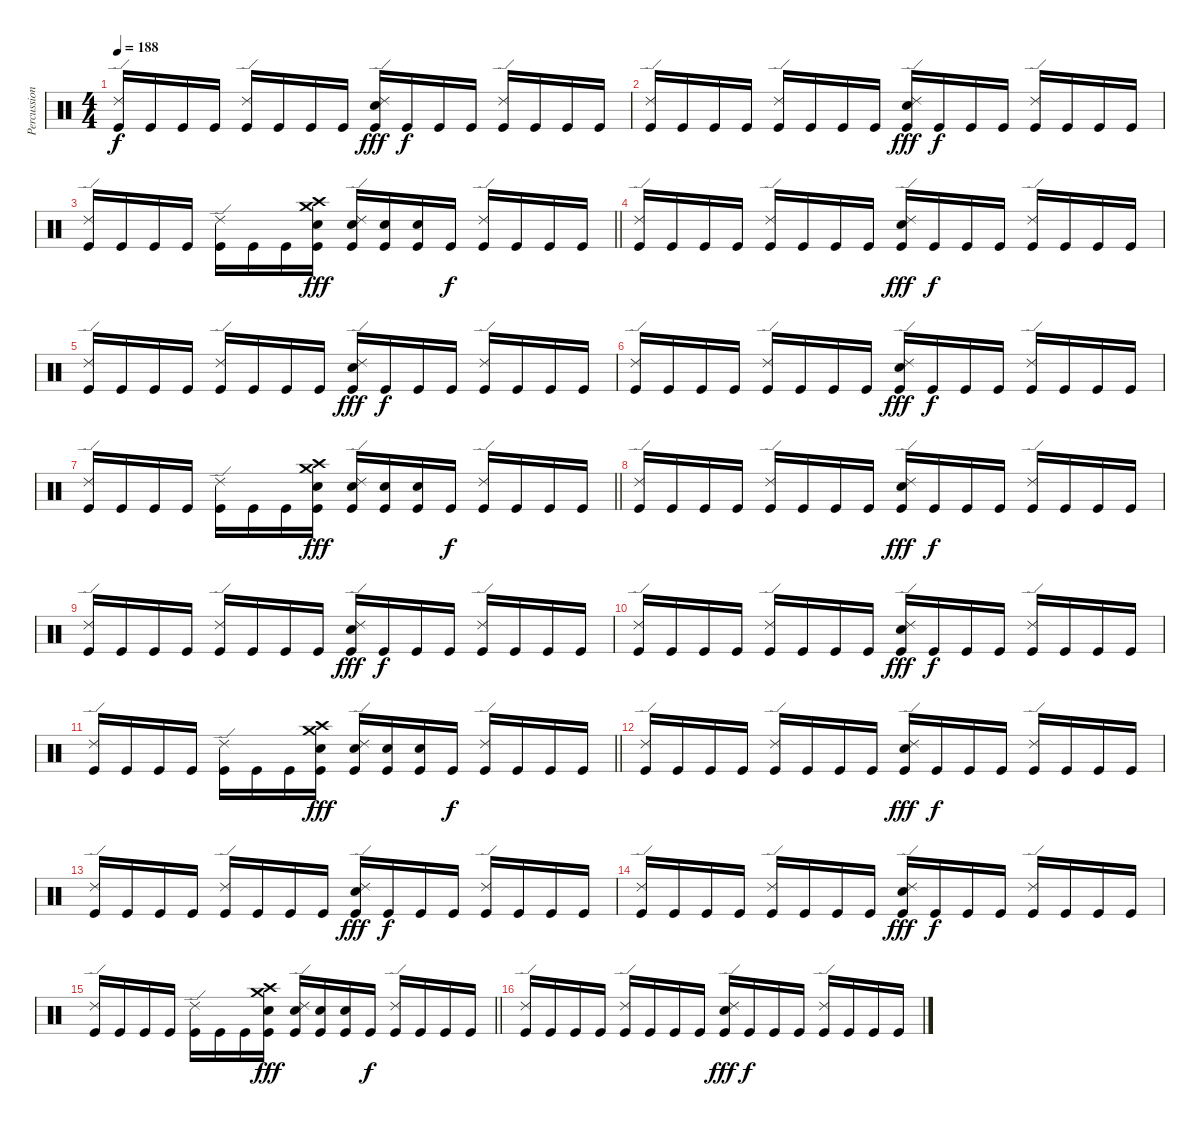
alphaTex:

\track ("Percussion" "Percussion") {instrument percussion}
\staff {score}
\articulation defaults
\ts (4 4)
\tempo 188
\clef neutral
\ks c
("Ride (edge) 2" "Kick (hit)").16{dy f} "Kick (hit)".16 "Kick (hit)".16 "Kick (hit)".16 ("Ride (edge) 2" "Kick (hit)").16 "Kick (hit)".16 "Kick (hit)".16 "Kick (hit)".16 ("Ride (edge) 2" "Snare (hit) 2" "Kick (hit)").16{dy fff} "Kick (hit)".16{dy f} "Kick (hit)".16 "Kick (hit)".16 ("Ride (edge) 2" "Kick (hit)").16 "Kick (hit)".16 "Kick (hit)".16 "Kick (hit)".16 |
("Ride (edge) 2" "Kick (hit)").16 "Kick (hit)".16 "Kick (hit)".16 "Kick (hit)".16 ("Ride (edge) 2" "Kick (hit)").16 "Kick (hit)".16 "Kick (hit)".16 "Kick (hit)".16 ("Ride (edge) 2" "Snare (hit) 2" "Kick (hit)").16{dy fff} "Kick (hit)".16{dy f} "Kick (hit)".16 "Kick (hit)".16 ("Ride (edge) 2" "Kick (hit)").16 "Kick (hit)".16 "Kick (hit)".16 "Kick (hit)".16 |
\barLineRight lightlight
("Ride (edge) 2" "Kick (hit)").16 "Kick (hit)".16 "Kick (hit)".16 "Kick (hit)".16 ("Ride (edge) 2" "Kick (hit)").16 "Kick (hit)".16 "Kick (hit)".16 ("Crash medium (hit)" "Crash high (hit)" "Snare (hit) 2" "Kick (hit)").16{dy fff} ("Ride (edge) 2" "Snare (hit) 2" "Kick (hit)").16 ("Snare (hit) 2" "Kick (hit)").16 ("Snare (hit) 2" "Kick (hit)").16 "Kick (hit)".16{dy f} ("Ride (edge) 2" "Kick (hit)").16 "Kick (hit)".16 "Kick (hit)".16 "Kick (hit)".16 |
("Ride (edge) 2" "Kick (hit)").16 "Kick (hit)".16 "Kick (hit)".16 "Kick (hit)".16 ("Ride (edge) 2" "Kick (hit)").16 "Kick (hit)".16 "Kick (hit)".16 "Kick (hit)".16 ("Ride (edge) 2" "Snare (hit) 2" "Kick (hit)").16{dy fff} "Kick (hit)".16{dy f} "Kick (hit)".16 "Kick (hit)".16 ("Ride (edge) 2" "Kick (hit)").16 "Kick (hit)".16 "Kick (hit)".16 "Kick (hit)".16 |
("Ride (edge) 2" "Kick (hit)").16 "Kick (hit)".16 "Kick (hit)".16 "Kick (hit)".16 ("Ride (edge) 2" "Kick (hit)").16 "Kick (hit)".16 "Kick (hit)".16 "Kick (hit)".16 ("Ride (edge) 2" "Snare (hit) 2" "Kick (hit)").16{dy fff} "Kick (hit)".16{dy f} "Kick (hit)".16 "Kick (hit)".16 ("Ride (edge) 2" "Kick (hit)").16 "Kick (hit)".16 "Kick (hit)".16 "Kick (hit)".16 |
("Ride (edge) 2" "Kick (hit)").16 "Kick (hit)".16 "Kick (hit)".16 "Kick (hit)".16 ("Ride (edge) 2" "Kick (hit)").16 "Kick (hit)".16 "Kick (hit)".16 "Kick (hit)".16 ("Ride (edge) 2" "Snare (hit) 2" "Kick (hit)").16{dy fff} "Kick (hit)".16{dy f} "Kick (hit)".16 "Kick (hit)".16 ("Ride (edge) 2" "Kick (hit)").16 "Kick (hit)".16 "Kick (hit)".16 "Kick (hit)".16 |
\barLineRight lightlight
("Ride (edge) 2" "Kick (hit)").16 "Kick (hit)".16 "Kick (hit)".16 "Kick (hit)".16 ("Ride (edge) 2" "Kick (hit)").16 "Kick (hit)".16 "Kick (hit)".16 ("Crash medium (hit)" "Crash high (hit)" "Snare (hit) 2" "Kick (hit)").16{dy fff} ("Ride (edge) 2" "Snare (hit) 2" "Kick (hit)").16 ("Snare (hit) 2" "Kick (hit)").16 ("Snare (hit) 2" "Kick (hit)").16 "Kick (hit)".16{dy f} ("Ride (edge) 2" "Kick (hit)").16 "Kick (hit)".16 "Kick (hit)".16 "Kick (hit)".16 |
("Ride (edge) 2" "Kick (hit)").16 "Kick (hit)".16 "Kick (hit)".16 "Kick (hit)".16 ("Ride (edge) 2" "Kick (hit)").16 "Kick (hit)".16 "Kick (hit)".16 "Kick (hit)".16 ("Ride (edge) 2" "Snare (hit) 2" "Kick (hit)").16{dy fff} "Kick (hit)".16{dy f} "Kick (hit)".16 "Kick (hit)".16 ("Ride (edge) 2" "Kick (hit)").16 "Kick (hit)".16 "Kick (hit)".16 "Kick (hit)".16 |
("Ride (edge) 2" "Kick (hit)").16 "Kick (hit)".16 "Kick (hit)".16 "Kick (hit)".16 ("Ride (edge) 2" "Kick (hit)").16 "Kick (hit)".16 "Kick (hit)".16 "Kick (hit)".16 ("Ride (edge) 2" "Snare (hit) 2" "Kick (hit)").16{dy fff} "Kick (hit)".16{dy f} "Kick (hit)".16 "Kick (hit)".16 ("Ride (edge) 2" "Kick (hit)").16 "Kick (hit)".16 "Kick (hit)".16 "Kick (hit)".16 |
("Ride (edge) 2" "Kick (hit)").16 "Kick (hit)".16 "Kick (hit)".16 "Kick (hit)".16 ("Ride (edge) 2" "Kick (hit)").16 "Kick (hit)".16 "Kick (hit)".16 "Kick (hit)".16 ("Ride (edge) 2" "Snare (hit) 2" "Kick (hit)").16{dy fff} "Kick (hit)".16{dy f} "Kick (hit)".16 "Kick (hit)".16 ("Ride (edge) 2" "Kick (hit)").16 "Kick (hit)".16 "Kick (hit)".16 "Kick (hit)".16 |
\barLineRight lightlight
("Ride (edge) 2" "Kick (hit)").16 "Kick (hit)".16 "Kick (hit)".16 "Kick (hit)".16 ("Ride (edge) 2" "Kick (hit)").16 "Kick (hit)".16 "Kick (hit)".16 ("Crash medium (hit)" "Crash high (hit)" "Snare (hit) 2" "Kick (hit)").16{dy fff} ("Ride (edge) 2" "Snare (hit) 2" "Kick (hit)").16 ("Snare (hit) 2" "Kick (hit)").16 ("Snare (hit) 2" "Kick (hit)").16 "Kick (hit)".16{dy f} ("Ride (edge) 2" "Kick (hit)").16 "Kick (hit)".16 "Kick (hit)".16 "Kick (hit)".16 |
("Ride (edge) 2" "Kick (hit)").16 "Kick (hit)".16 "Kick (hit)".16 "Kick (hit)".16 ("Ride (edge) 2" "Kick (hit)").16 "Kick (hit)".16 "Kick (hit)".16 "Kick (hit)".16 ("Ride (edge) 2" "Snare (hit) 2" "Kick (hit)").16{dy fff} "Kick (hit)".16{dy f} "Kick (hit)".16 "Kick (hit)".16 ("Ride (edge) 2" "Kick (hit)").16 "Kick (hit)".16 "Kick (hit)".16 "Kick (hit)".16 |
("Ride (edge) 2" "Kick (hit)").16 "Kick (hit)".16 "Kick (hit)".16 "Kick (hit)".16 ("Ride (edge) 2" "Kick (hit)").16 "Kick (hit)".16 "Kick (hit)".16 "Kick (hit)".16 ("Ride (edge) 2" "Snare (hit) 2" "Kick (hit)").16{dy fff} "Kick (hit)".16{dy f} "Kick (hit)".16 "Kick (hit)".16 ("Ride (edge) 2" "Kick (hit)").16 "Kick (hit)".16 "Kick (hit)".16 "Kick (hit)".16 |
("Ride (edge) 2" "Kick (hit)").16 "Kick (hit)".16 "Kick (hit)".16 "Kick (hit)".16 ("Ride (edge) 2" "Kick (hit)").16 "Kick (hit)".16 "Kick (hit)".16 "Kick (hit)".16 ("Ride (edge) 2" "Snare (hit) 2" "Kick (hit)").16{dy fff} "Kick (hit)".16{dy f} "Kick (hit)".16 "Kick (hit)".16 ("Ride (edge) 2" "Kick (hit)").16 "Kick (hit)".16 "Kick (hit)".16 "Kick (hit)".16 |
\barLineRight lightlight
("Ride (edge) 2" "Kick (hit)").16 "Kick (hit)".16 "Kick (hit)".16 "Kick (hit)".16 ("Ride (edge) 2" "Kick (hit)").16 "Kick (hit)".16 "Kick (hit)".16 ("Crash medium (hit)" "Crash high (hit)" "Snare (hit) 2" "Kick (hit)").16{dy fff} ("Ride (edge) 2" "Snare (hit) 2" "Kick (hit)").16 ("Snare (hit) 2" "Kick (hit)").16 ("Snare (hit) 2" "Kick (hit)").16 "Kick (hit)".16{dy f} ("Ride (edge) 2" "Kick (hit)").16 "Kick (hit)".16 "Kick (hit)".16 "Kick (hit)".16 |
("Ride (edge) 2" "Kick (hit)").16 "Kick (hit)".16 "Kick (hit)".16 "Kick (hit)".16 ("Ride (edge) 2" "Kick (hit)").16 "Kick (hit)".16 "Kick (hit)".16 "Kick (hit)".16 ("Ride (edge) 2" "Snare (hit) 2" "Kick (hit)").16{dy fff} "Kick (hit)".16{dy f} "Kick (hit)".16 "Kick (hit)".16 ("Ride (edge) 2" "Kick (hit)").16 "Kick (hit)".16 "Kick (hit)".16 "Kick (hit)".16
